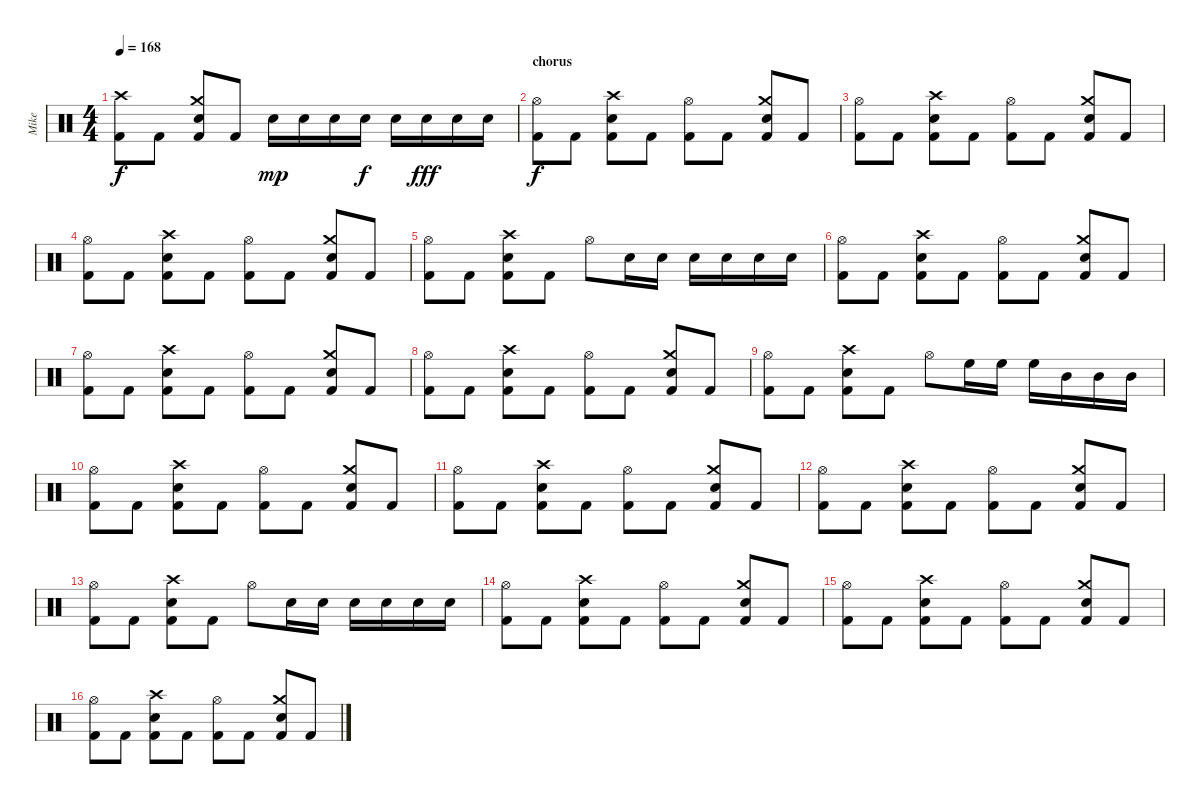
\track ("Mike" "Mike") {instrument percussion}
\staff {score}
\articulation defaults
\ts (4 4)
\tempo 168
\clef neutral
\ks c
("Crash high (hit)" "Kick (hit) 2").8{dy f} "Kick (hit) 2".8 ("Crash medium (hit)" "Snare (hit) 2" "Kick (hit) 2").8 "Kick (hit) 2".8 "Snare (hit) 2".16{dy mp} "Snare (hit) 2".16 "Snare (hit) 2".16 "Snare (hit) 2".16{dy f} "Snare (hit) 2".16 "Snare (hit) 2".16{dy fff} "Snare (hit) 2".16 "Snare (hit) 2".16 |
\section ("" "chorus")
("Hi-Hat (open)" "Kick (hit) 2").8{dy f} "Kick (hit) 2".8 ("Crash high (hit)" "Snare (hit) 2" "Kick (hit) 2").8 "Kick (hit) 2".8 ("Hi-Hat (open)" "Kick (hit) 2").8 "Kick (hit) 2".8 ("Crash medium (hit)" "Snare (hit) 2" "Kick (hit) 2").8 "Kick (hit) 2".8 |
("Hi-Hat (open)" "Kick (hit) 2").8 "Kick (hit) 2".8 ("Crash high (hit)" "Snare (hit) 2" "Kick (hit) 2").8 "Kick (hit) 2".8 ("Hi-Hat (open)" "Kick (hit) 2").8 "Kick (hit) 2".8 ("Crash medium (hit)" "Snare (hit) 2" "Kick (hit) 2").8 "Kick (hit) 2".8 |
("Hi-Hat (open)" "Kick (hit) 2").8 "Kick (hit) 2".8 ("Crash high (hit)" "Snare (hit) 2" "Kick (hit) 2").8 "Kick (hit) 2".8 ("Hi-Hat (open)" "Kick (hit) 2").8 "Kick (hit) 2".8 ("Crash medium (hit)" "Snare (hit) 2" "Kick (hit) 2").8 "Kick (hit) 2".8 |
("Hi-Hat (open)" "Kick (hit) 2").8 "Kick (hit) 2".8 ("Crash high (hit)" "Snare (hit) 2" "Kick (hit) 2").8 "Kick (hit) 2".8 "Hi-Hat (open)".8 "Snare (hit) 2".16 "Snare (hit) 2".16 "Snare (hit) 2".16 "Snare (hit) 2".16 "Snare (hit) 2".16 "Snare (hit) 2".16 |
("Hi-Hat (open)" "Kick (hit) 2").8 "Kick (hit) 2".8 ("Crash high (hit)" "Snare (hit) 2" "Kick (hit) 2").8 "Kick (hit) 2".8 ("Hi-Hat (open)" "Kick (hit) 2").8 "Kick (hit) 2".8 ("Crash medium (hit)" "Snare (hit) 2" "Kick (hit) 2").8 "Kick (hit) 2".8 |
("Hi-Hat (open)" "Kick (hit) 2").8 "Kick (hit) 2".8 ("Crash high (hit)" "Snare (hit) 2" "Kick (hit) 2").8 "Kick (hit) 2".8 ("Hi-Hat (open)" "Kick (hit) 2").8 "Kick (hit) 2".8 ("Crash medium (hit)" "Snare (hit) 2" "Kick (hit) 2").8 "Kick (hit) 2".8 |
("Hi-Hat (open)" "Kick (hit) 2").8 "Kick (hit) 2".8 ("Crash high (hit)" "Snare (hit) 2" "Kick (hit) 2").8 "Kick (hit) 2".8 ("Hi-Hat (open)" "Kick (hit) 2").8 "Kick (hit) 2".8 ("Crash medium (hit)" "Snare (hit) 2" "Kick (hit) 2").8 "Kick (hit) 2".8 |
("Hi-Hat (open)" "Kick (hit) 2").8 "Kick (hit) 2".8 ("Crash high (hit)" "Snare (hit) 2" "Kick (hit) 2").8 "Kick (hit) 2".8 "Hi-Hat (open)".8 "High Floor Tom (hit)".16 "High Floor Tom (hit)".16 "High Floor Tom (hit)".16 "Mid Tom (hit)".16 "Mid Tom (hit)".16 "Mid Tom (hit)".16 |
("Hi-Hat (open)" "Kick (hit) 2").8 "Kick (hit) 2".8 ("Crash high (hit)" "Snare (hit) 2" "Kick (hit) 2").8 "Kick (hit) 2".8 ("Hi-Hat (open)" "Kick (hit) 2").8 "Kick (hit) 2".8 ("Crash medium (hit)" "Snare (hit) 2" "Kick (hit) 2").8 "Kick (hit) 2".8 |
("Hi-Hat (open)" "Kick (hit) 2").8 "Kick (hit) 2".8 ("Crash high (hit)" "Snare (hit) 2" "Kick (hit) 2").8 "Kick (hit) 2".8 ("Hi-Hat (open)" "Kick (hit) 2").8 "Kick (hit) 2".8 ("Crash medium (hit)" "Snare (hit) 2" "Kick (hit) 2").8 "Kick (hit) 2".8 |
("Hi-Hat (open)" "Kick (hit) 2").8 "Kick (hit) 2".8 ("Crash high (hit)" "Snare (hit) 2" "Kick (hit) 2").8 "Kick (hit) 2".8 ("Hi-Hat (open)" "Kick (hit) 2").8 "Kick (hit) 2".8 ("Crash medium (hit)" "Snare (hit) 2" "Kick (hit) 2").8 "Kick (hit) 2".8 |
("Hi-Hat (open)" "Kick (hit) 2").8 "Kick (hit) 2".8 ("Crash high (hit)" "Snare (hit) 2" "Kick (hit) 2").8 "Kick (hit) 2".8 "Hi-Hat (open)".8 "Snare (hit) 2".16 "Snare (hit) 2".16 "Snare (hit) 2".16 "Snare (hit) 2".16 "Snare (hit) 2".16 "Snare (hit) 2".16 |
("Hi-Hat (open)" "Kick (hit) 2").8 "Kick (hit) 2".8 ("Crash high (hit)" "Snare (hit) 2" "Kick (hit) 2").8 "Kick (hit) 2".8 ("Hi-Hat (open)" "Kick (hit) 2").8 "Kick (hit) 2".8 ("Crash medium (hit)" "Snare (hit) 2" "Kick (hit) 2").8 "Kick (hit) 2".8 |
("Hi-Hat (open)" "Kick (hit) 2").8 "Kick (hit) 2".8 ("Crash high (hit)" "Snare (hit) 2" "Kick (hit) 2").8 "Kick (hit) 2".8 ("Hi-Hat (open)" "Kick (hit) 2").8 "Kick (hit) 2".8 ("Crash medium (hit)" "Snare (hit) 2" "Kick (hit) 2").8 "Kick (hit) 2".8 |
("Hi-Hat (open)" "Kick (hit) 2").8 "Kick (hit) 2".8 ("Crash high (hit)" "Snare (hit) 2" "Kick (hit) 2").8 "Kick (hit) 2".8 ("Hi-Hat (open)" "Kick (hit) 2").8 "Kick (hit) 2".8 ("Crash medium (hit)" "Snare (hit) 2" "Kick (hit) 2").8 "Kick (hit) 2".8
